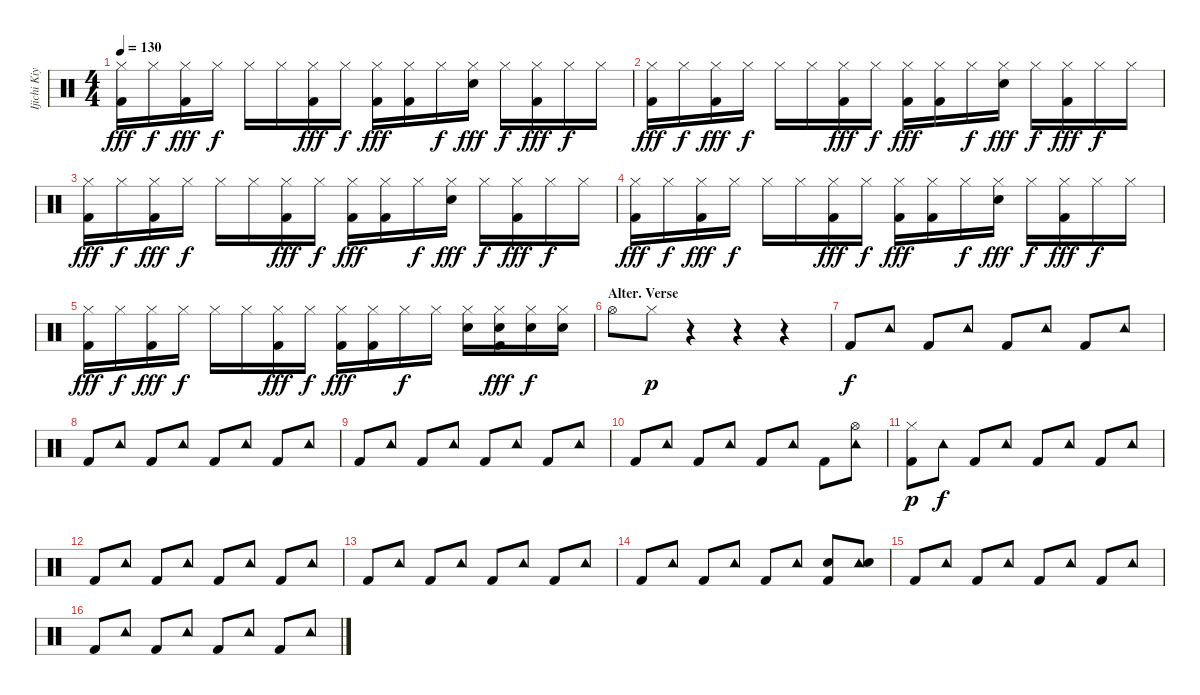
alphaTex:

\track ("Ijichi Kiyoshi (Drums)" "Ijichi Kiy") {instrument percussion}
\staff {score}
\articulation defaults
\ts (4 4)
\tempo 130
\clef neutral
\ks c
("Hi-Hat (closed)" "Kick (hit) 2").16{dy fff} "Hi-Hat (closed)".16{dy f} ("Hi-Hat (closed)" "Kick (hit) 2").16{dy fff} "Hi-Hat (closed)".16{dy f} "Hi-Hat (closed)".16 "Hi-Hat (closed)".16 ("Hi-Hat (closed)" "Kick (hit) 2").16{dy fff} "Hi-Hat (closed)".16{dy f} ("Hi-Hat (closed)" "Kick (hit) 2").16{dy fff} ("Hi-Hat (closed)" "Kick (hit) 2").16 "Hi-Hat (closed)".16{dy f} ("Hi-Hat (closed)" "Snare (hit) 2").16{dy fff} "Hi-Hat (closed)".16{dy f} ("Hi-Hat (closed)" "Kick (hit) 2").16{dy fff} "Hi-Hat (closed)".16{dy f} "Hi-Hat (closed)".16 |
("Hi-Hat (closed)" "Kick (hit) 2").16{dy fff} "Hi-Hat (closed)".16{dy f} ("Hi-Hat (closed)" "Kick (hit) 2").16{dy fff} "Hi-Hat (closed)".16{dy f} "Hi-Hat (closed)".16 "Hi-Hat (closed)".16 ("Hi-Hat (closed)" "Kick (hit) 2").16{dy fff} "Hi-Hat (closed)".16{dy f} ("Hi-Hat (closed)" "Kick (hit) 2").16{dy fff} ("Hi-Hat (closed)" "Kick (hit) 2").16 "Hi-Hat (closed)".16{dy f} ("Hi-Hat (closed)" "Snare (hit) 2").16{dy fff} "Hi-Hat (closed)".16{dy f} ("Hi-Hat (closed)" "Kick (hit) 2").16{dy fff} "Hi-Hat (closed)".16{dy f} "Hi-Hat (closed)".16 |
("Hi-Hat (closed)" "Kick (hit) 2").16{dy fff} "Hi-Hat (closed)".16{dy f} ("Hi-Hat (closed)" "Kick (hit) 2").16{dy fff} "Hi-Hat (closed)".16{dy f} "Hi-Hat (closed)".16 "Hi-Hat (closed)".16 ("Hi-Hat (closed)" "Kick (hit) 2").16{dy fff} "Hi-Hat (closed)".16{dy f} ("Hi-Hat (closed)" "Kick (hit) 2").16{dy fff} ("Hi-Hat (closed)" "Kick (hit) 2").16 "Hi-Hat (closed)".16{dy f} ("Hi-Hat (closed)" "Snare (hit) 2").16{dy fff} "Hi-Hat (closed)".16{dy f} ("Hi-Hat (closed)" "Kick (hit) 2").16{dy fff} "Hi-Hat (closed)".16{dy f} "Hi-Hat (closed)".16 |
("Hi-Hat (closed)" "Kick (hit) 2").16{dy fff} "Hi-Hat (closed)".16{dy f} ("Hi-Hat (closed)" "Kick (hit) 2").16{dy fff} "Hi-Hat (closed)".16{dy f} "Hi-Hat (closed)".16 "Hi-Hat (closed)".16 ("Hi-Hat (closed)" "Kick (hit) 2").16{dy fff} "Hi-Hat (closed)".16{dy f} ("Hi-Hat (closed)" "Kick (hit) 2").16{dy fff} ("Hi-Hat (closed)" "Kick (hit) 2").16 "Hi-Hat (closed)".16{dy f} ("Hi-Hat (closed)" "Snare (hit) 2").16{dy fff} "Hi-Hat (closed)".16{dy f} ("Hi-Hat (closed)" "Kick (hit) 2").16{dy fff} "Hi-Hat (closed)".16{dy f} "Hi-Hat (closed)".16 |
("Hi-Hat (closed)" "Kick (hit) 2").16{dy fff} "Hi-Hat (closed)".16{dy f} ("Hi-Hat (closed)" "Kick (hit) 2").16{dy fff} "Hi-Hat (closed)".16{dy f} "Hi-Hat (closed)".16 "Hi-Hat (closed)".16 ("Hi-Hat (closed)" "Kick (hit) 2").16{dy fff} "Hi-Hat (closed)".16{dy f} ("Hi-Hat (closed)" "Kick (hit) 2").16{dy fff} ("Hi-Hat (closed)" "Kick (hit) 2").16 "Hi-Hat (closed)".16{dy f} "Hi-Hat (closed)".16 ("Hi-Hat (closed)" "Snare (hit) 2").16 ("Hi-Hat (closed)" "Snare (hit) 2" "Kick (hit) 2").16{dy fff} ("Hi-Hat (closed)" "Snare (hit) 2").16{dy f} ("Hi-Hat (closed)" "Snare (hit) 2").16 |
\section ("" "Alter. Verse")
"Hi-Hat (open)".8 "Hi-Hat (closed)".8{dy p} r.4 r.4 r.4 |
"Kick (hit) 2".8{dy f} "Tambourine (hit)".8 "Kick (hit) 2".8 "Tambourine (hit)".8 "Kick (hit) 2".8 "Tambourine (hit)".8 "Kick (hit) 2".8 "Tambourine (hit)".8 |
"Kick (hit) 2".8 "Tambourine (hit)".8 "Kick (hit) 2".8 "Tambourine (hit)".8 "Kick (hit) 2".8 "Tambourine (hit)".8 "Kick (hit) 2".8 "Tambourine (hit)".8 |
"Kick (hit) 2".8 "Tambourine (hit)".8 "Kick (hit) 2".8 "Tambourine (hit)".8 "Kick (hit) 2".8 "Tambourine (hit)".8 "Kick (hit) 2".8 "Tambourine (hit)".8 |
"Kick (hit) 2".8 "Tambourine (hit)".8 "Kick (hit) 2".8 "Tambourine (hit)".8 "Kick (hit) 2".8 "Tambourine (hit)".8 "Kick (hit) 2".8 ("Hi-Hat (open)" "Tambourine (hit)").8 |
("Hi-Hat (closed)" "Kick (hit) 2").8{dy p} "Tambourine (hit)".8{dy f} "Kick (hit) 2".8 "Tambourine (hit)".8 "Kick (hit) 2".8 "Tambourine (hit)".8 "Kick (hit) 2".8 "Tambourine (hit)".8 |
"Kick (hit) 2".8 "Tambourine (hit)".8 "Kick (hit) 2".8 "Tambourine (hit)".8 "Kick (hit) 2".8 "Tambourine (hit)".8 "Kick (hit) 2".8 "Tambourine (hit)".8 |
"Kick (hit) 2".8 "Tambourine (hit)".8 "Kick (hit) 2".8 "Tambourine (hit)".8 "Kick (hit) 2".8 "Tambourine (hit)".8 "Kick (hit) 2".8 "Tambourine (hit)".8 |
"Kick (hit) 2".8 "Tambourine (hit)".8 "Kick (hit) 2".8 "Tambourine (hit)".8 "Kick (hit) 2".8 "Tambourine (hit)".8 ("Snare (hit) 2" "Kick (hit) 2").8 ("Tambourine (hit)" "Snare (hit) 2").8 |
"Kick (hit) 2".8 "Tambourine (hit)".8 "Kick (hit) 2".8 "Tambourine (hit)".8 "Kick (hit) 2".8 "Tambourine (hit)".8 "Kick (hit) 2".8 "Tambourine (hit)".8 |
"Kick (hit) 2".8 "Tambourine (hit)".8 "Kick (hit) 2".8 "Tambourine (hit)".8 "Kick (hit) 2".8 "Tambourine (hit)".8 "Kick (hit) 2".8 "Tambourine (hit)".8
